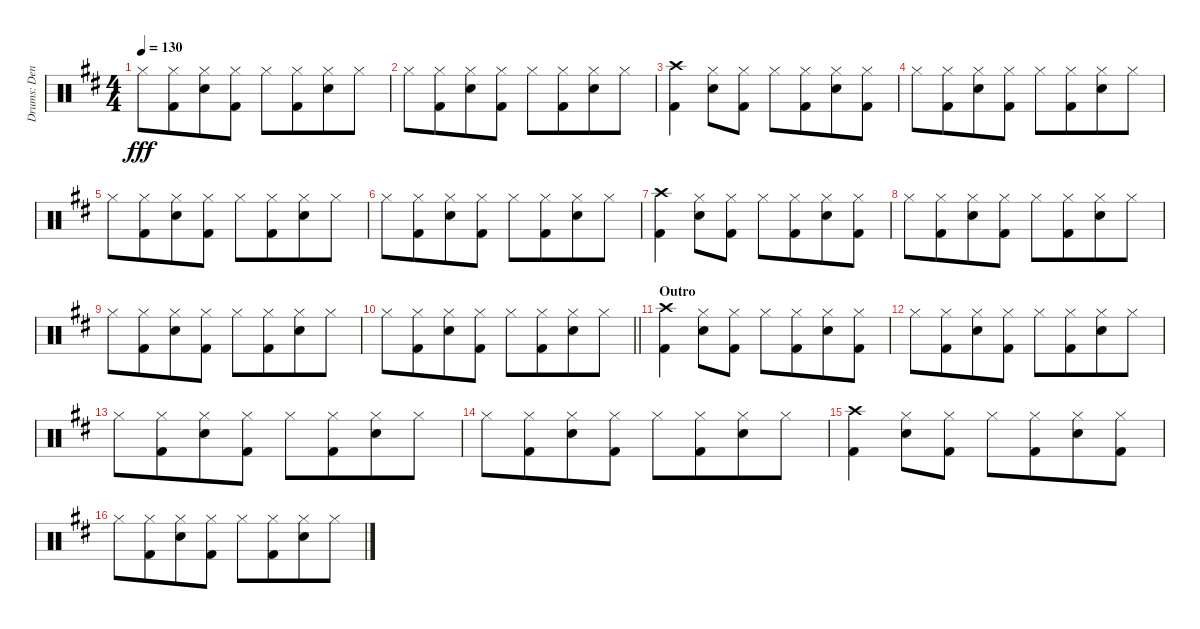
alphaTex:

\track ("Drums: Denny" "Drums: Den") {instrument percussion}
\staff {score}
\articulation defaults
\ts (4 4)
\tempo 130
\clef neutral
\ks d "Hi-Hat (closed)".8{dy fff}
("Hi-Hat (closed)" "Kick (hit) 2").8{beam merge} ("Hi-Hat (closed)" "Electric Snare (hit)").8 ("Hi-Hat (closed)" "Kick (hit) 2").8 "Hi-Hat (closed)".8 ("Hi-Hat (closed)" "Kick (hit) 2").8{beam merge} ("Hi-Hat (closed)" "Electric Snare (hit)").8 "Hi-Hat (closed)".8 |
"Hi-Hat (closed)".8 ("Hi-Hat (closed)" "Kick (hit) 2").8{beam merge} ("Hi-Hat (closed)" "Electric Snare (hit)").8 ("Hi-Hat (closed)" "Kick (hit) 2").8 "Hi-Hat (closed)".8 ("Hi-Hat (closed)" "Kick (hit) 2").8{beam merge} ("Hi-Hat (closed)" "Electric Snare (hit)").8 "Hi-Hat (closed)".8 |
("Crash high (hit)" "Kick (hit) 2").4 ("Hi-Hat (closed)" "Electric Snare (hit)").8 ("Hi-Hat (closed)" "Kick (hit) 2").8 "Hi-Hat (closed)".8 ("Hi-Hat (closed)" "Kick (hit) 2").8{beam merge} ("Hi-Hat (closed)" "Electric Snare (hit)").8 ("Hi-Hat (closed)" "Kick (hit) 2").8 |
"Hi-Hat (closed)".8 ("Hi-Hat (closed)" "Kick (hit) 2").8{beam merge} ("Hi-Hat (closed)" "Electric Snare (hit)").8 ("Hi-Hat (closed)" "Kick (hit) 2").8 "Hi-Hat (closed)".8 ("Hi-Hat (closed)" "Kick (hit) 2").8{beam merge} ("Hi-Hat (closed)" "Electric Snare (hit)").8 "Hi-Hat (closed)".8 |
"Hi-Hat (closed)".8 ("Hi-Hat (closed)" "Kick (hit) 2").8{beam merge} ("Hi-Hat (closed)" "Electric Snare (hit)").8 ("Hi-Hat (closed)" "Kick (hit) 2").8 "Hi-Hat (closed)".8 ("Hi-Hat (closed)" "Kick (hit) 2").8{beam merge} ("Hi-Hat (closed)" "Electric Snare (hit)").8 "Hi-Hat (closed)".8 |
"Hi-Hat (closed)".8 ("Hi-Hat (closed)" "Kick (hit) 2").8{beam merge} ("Hi-Hat (closed)" "Electric Snare (hit)").8 ("Hi-Hat (closed)" "Kick (hit) 2").8 "Hi-Hat (closed)".8 ("Hi-Hat (closed)" "Kick (hit) 2").8{beam merge} ("Hi-Hat (closed)" "Electric Snare (hit)").8 "Hi-Hat (closed)".8 |
("Crash high (hit)" "Kick (hit) 2").4 ("Hi-Hat (closed)" "Electric Snare (hit)").8 ("Hi-Hat (closed)" "Kick (hit) 2").8 "Hi-Hat (closed)".8 ("Hi-Hat (closed)" "Kick (hit) 2").8{beam merge} ("Hi-Hat (closed)" "Electric Snare (hit)").8 ("Hi-Hat (closed)" "Kick (hit) 2").8 |
"Hi-Hat (closed)".8 ("Hi-Hat (closed)" "Kick (hit) 2").8{beam merge} ("Hi-Hat (closed)" "Electric Snare (hit)").8 ("Hi-Hat (closed)" "Kick (hit) 2").8 "Hi-Hat (closed)".8 ("Hi-Hat (closed)" "Kick (hit) 2").8{beam merge} ("Hi-Hat (closed)" "Electric Snare (hit)").8 "Hi-Hat (closed)".8 |
"Hi-Hat (closed)".8 ("Hi-Hat (closed)" "Kick (hit) 2").8{beam merge} ("Hi-Hat (closed)" "Electric Snare (hit)").8 ("Hi-Hat (closed)" "Kick (hit) 2").8 "Hi-Hat (closed)".8 ("Hi-Hat (closed)" "Kick (hit) 2").8{beam merge} ("Hi-Hat (closed)" "Electric Snare (hit)").8 "Hi-Hat (closed)".8 |
\barLineRight lightlight "Hi-Hat (closed)".8
("Hi-Hat (closed)" "Kick (hit) 2").8{beam merge} ("Hi-Hat (closed)" "Electric Snare (hit)").8 ("Hi-Hat (closed)" "Kick (hit) 2").8 "Hi-Hat (closed)".8 ("Hi-Hat (closed)" "Kick (hit) 2").8{beam merge} ("Hi-Hat (closed)" "Electric Snare (hit)").8 "Hi-Hat (closed)".8 |
\section ("" "Outro")
("Crash high (hit)" "Kick (hit) 2").4 ("Hi-Hat (closed)" "Electric Snare (hit)").8 ("Hi-Hat (closed)" "Kick (hit) 2").8 "Hi-Hat (closed)".8 ("Hi-Hat (closed)" "Kick (hit) 2").8{beam merge} ("Hi-Hat (closed)" "Electric Snare (hit)").8 ("Hi-Hat (closed)" "Kick (hit) 2").8 |
"Hi-Hat (closed)".8 ("Hi-Hat (closed)" "Kick (hit) 2").8{beam merge} ("Hi-Hat (closed)" "Electric Snare (hit)").8 ("Hi-Hat (closed)" "Kick (hit) 2").8 "Hi-Hat (closed)".8 ("Hi-Hat (closed)" "Kick (hit) 2").8{beam merge} ("Hi-Hat (closed)" "Electric Snare (hit)").8 "Hi-Hat (closed)".8 |
"Hi-Hat (closed)".8 ("Hi-Hat (closed)" "Kick (hit) 2").8{beam merge} ("Hi-Hat (closed)" "Electric Snare (hit)").8 ("Hi-Hat (closed)" "Kick (hit) 2").8 "Hi-Hat (closed)".8 ("Hi-Hat (closed)" "Kick (hit) 2").8{beam merge} ("Hi-Hat (closed)" "Electric Snare (hit)").8 "Hi-Hat (closed)".8 |
"Hi-Hat (closed)".8 ("Hi-Hat (closed)" "Kick (hit) 2").8{beam merge} ("Hi-Hat (closed)" "Electric Snare (hit)").8 ("Hi-Hat (closed)" "Kick (hit) 2").8 "Hi-Hat (closed)".8 ("Hi-Hat (closed)" "Kick (hit) 2").8{beam merge} ("Hi-Hat (closed)" "Electric Snare (hit)").8 "Hi-Hat (closed)".8 |
("Crash high (hit)" "Kick (hit) 2").4 ("Hi-Hat (closed)" "Electric Snare (hit)").8 ("Hi-Hat (closed)" "Kick (hit) 2").8 "Hi-Hat (closed)".8 ("Hi-Hat (closed)" "Kick (hit) 2").8{beam merge} ("Hi-Hat (closed)" "Electric Snare (hit)").8 ("Hi-Hat (closed)" "Kick (hit) 2").8 |
"Hi-Hat (closed)".8 ("Hi-Hat (closed)" "Kick (hit) 2").8{beam merge} ("Hi-Hat (closed)" "Electric Snare (hit)").8 ("Hi-Hat (closed)" "Kick (hit) 2").8 "Hi-Hat (closed)".8 ("Hi-Hat (closed)" "Kick (hit) 2").8{beam merge} ("Hi-Hat (closed)" "Electric Snare (hit)").8 "Hi-Hat (closed)".8
